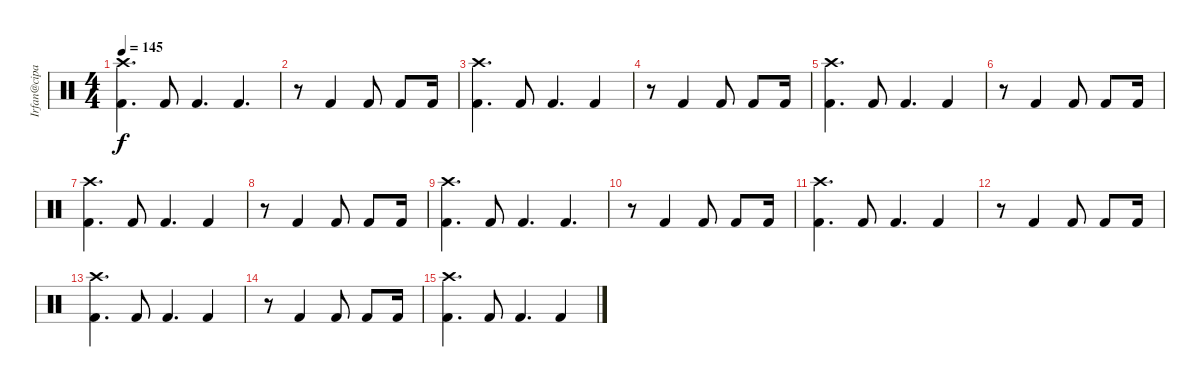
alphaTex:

\track ("Irfan@cipan" "Irfan@cipa") {instrument percussion}
\staff {score}
\articulation defaults
\ts (4 4)
\tempo 145
\clef neutral
\ks c
("Crash high (hit)" "Kick (hit) 2").4{d dy f} "Kick (hit) 2".8 "Kick (hit) 2".4{d} "Kick (hit) 2".4{d} |
r.8 "Kick (hit) 2".4 "Kick (hit) 2".8 "Kick (hit) 2".8 "Kick (hit) 2".16 |
("Crash high (hit)" "Kick (hit) 2").4{d} "Kick (hit) 2".8 "Kick (hit) 2".4{d} "Kick (hit) 2".4 |
r.8 "Kick (hit) 2".4 "Kick (hit) 2".8 "Kick (hit) 2".8 "Kick (hit) 2".16 |
("Crash high (hit)" "Kick (hit) 2").4{d} "Kick (hit) 2".8 "Kick (hit) 2".4{d} "Kick (hit) 2".4 |
r.8 "Kick (hit) 2".4 "Kick (hit) 2".8 "Kick (hit) 2".8 "Kick (hit) 2".16 |
("Crash high (hit)" "Kick (hit) 2").4{d} "Kick (hit) 2".8 "Kick (hit) 2".4{d} "Kick (hit) 2".4 |
r.8 "Kick (hit) 2".4 "Kick (hit) 2".8 "Kick (hit) 2".8 "Kick (hit) 2".16 |
("Crash high (hit)" "Kick (hit) 2").4{d} "Kick (hit) 2".8 "Kick (hit) 2".4{d} "Kick (hit) 2".4{d} |
r.8 "Kick (hit) 2".4 "Kick (hit) 2".8 "Kick (hit) 2".8 "Kick (hit) 2".16 |
("Crash high (hit)" "Kick (hit) 2").4{d} "Kick (hit) 2".8 "Kick (hit) 2".4{d} "Kick (hit) 2".4 |
r.8 "Kick (hit) 2".4 "Kick (hit) 2".8 "Kick (hit) 2".8 "Kick (hit) 2".16 |
("Crash high (hit)" "Kick (hit) 2").4{d} "Kick (hit) 2".8 "Kick (hit) 2".4{d} "Kick (hit) 2".4 |
r.8 "Kick (hit) 2".4 "Kick (hit) 2".8 "Kick (hit) 2".8 "Kick (hit) 2".16 |
("Crash high (hit)" "Kick (hit) 2").4{d} "Kick (hit) 2".8 "Kick (hit) 2".4{d} "Kick (hit) 2".4
